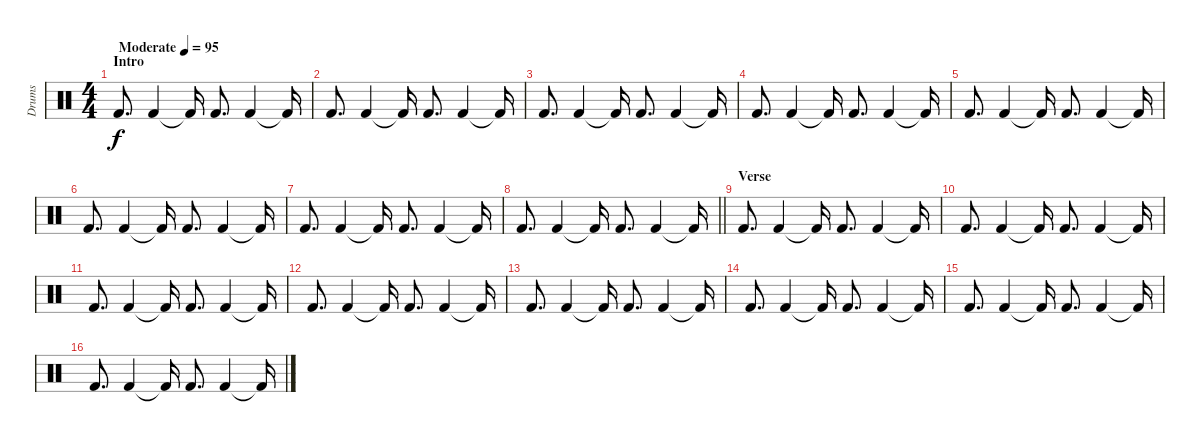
\track ("Drums" "Drums") {instrument percussion}
\staff {score}
\articulation defaults
\ts (4 4)
\section ("" "Intro")
\tempo (95 "Moderate")
\clef neutral
\ks c "Kick (hit) 2".8{d dy f} "Kick (hit) 2".4 "Kick (hit) 2"{t}.16 "Kick (hit) 2".8{d} "Kick (hit) 2".4 "Kick (hit) 2"{t}.16
|
"Kick (hit) 2".8{d} "Kick (hit) 2".4 "Kick (hit) 2"{t}.16 "Kick (hit) 2".8{d} "Kick (hit) 2".4 "Kick (hit) 2"{t}.16 |
"Kick (hit) 2".8{d} "Kick (hit) 2".4 "Kick (hit) 2"{t}.16 "Kick (hit) 2".8{d} "Kick (hit) 2".4 "Kick (hit) 2"{t}.16 |
"Kick (hit) 2".8{d} "Kick (hit) 2".4 "Kick (hit) 2"{t}.16 "Kick (hit) 2".8{d} "Kick (hit) 2".4 "Kick (hit) 2"{t}.16 |
"Kick (hit) 2".8{d} "Kick (hit) 2".4 "Kick (hit) 2"{t}.16 "Kick (hit) 2".8{d} "Kick (hit) 2".4 "Kick (hit) 2"{t}.16 |
"Kick (hit) 2".8{d} "Kick (hit) 2".4 "Kick (hit) 2"{t}.16 "Kick (hit) 2".8{d} "Kick (hit) 2".4 "Kick (hit) 2"{t}.16 |
"Kick (hit) 2".8{d} "Kick (hit) 2".4 "Kick (hit) 2"{t}.16 "Kick (hit) 2".8{d} "Kick (hit) 2".4 "Kick (hit) 2"{t}.16 |
\barLineRight lightlight "Kick (hit) 2".8{d} "Kick (hit) 2".4 "Kick (hit) 2"{t}.16 "Kick (hit) 2".8{d} "Kick (hit) 2".4 "Kick (hit) 2"{t}.16
|
\section ("" "Verse")
"Kick (hit) 2".8{d} "Kick (hit) 2".4 "Kick (hit) 2"{t}.16 "Kick (hit) 2".8{d} "Kick (hit) 2".4 "Kick (hit) 2"{t}.16 |
"Kick (hit) 2".8{d} "Kick (hit) 2".4 "Kick (hit) 2"{t}.16 "Kick (hit) 2".8{d} "Kick (hit) 2".4 "Kick (hit) 2"{t}.16 |
"Kick (hit) 2".8{d} "Kick (hit) 2".4 "Kick (hit) 2"{t}.16 "Kick (hit) 2".8{d} "Kick (hit) 2".4 "Kick (hit) 2"{t}.16 |
"Kick (hit) 2".8{d} "Kick (hit) 2".4 "Kick (hit) 2"{t}.16 "Kick (hit) 2".8{d} "Kick (hit) 2".4 "Kick (hit) 2"{t}.16 |
"Kick (hit) 2".8{d} "Kick (hit) 2".4 "Kick (hit) 2"{t}.16 "Kick (hit) 2".8{d} "Kick (hit) 2".4 "Kick (hit) 2"{t}.16 |
"Kick (hit) 2".8{d} "Kick (hit) 2".4 "Kick (hit) 2"{t}.16 "Kick (hit) 2".8{d} "Kick (hit) 2".4 "Kick (hit) 2"{t}.16 |
"Kick (hit) 2".8{d} "Kick (hit) 2".4 "Kick (hit) 2"{t}.16 "Kick (hit) 2".8{d} "Kick (hit) 2".4 "Kick (hit) 2"{t}.16 |
"Kick (hit) 2".8{d} "Kick (hit) 2".4 "Kick (hit) 2"{t}.16 "Kick (hit) 2".8{d} "Kick (hit) 2".4 "Kick (hit) 2"{t}.16
